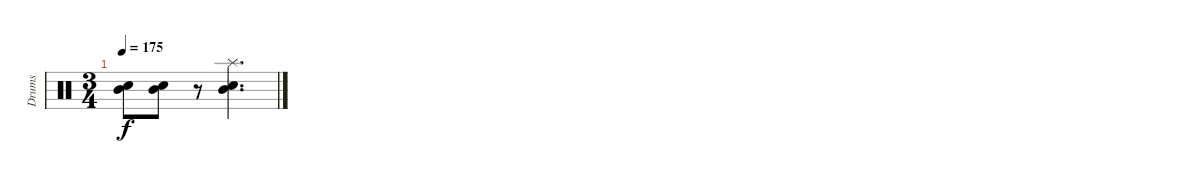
\track ("Drums" "Drums") {instrument percussion}
\staff {score}
\articulation defaults
\ts (3 4)
\tempo 175
\clef neutral
\ks c
("Mid Tom (hit)" "Electric Snare (hit)").8{dy f} ("Mid Tom (hit)" "Electric Snare (hit)").8 r.8 ("Splash (hit)" "Mid Tom (hit)" "Electric Snare (hit)").4{d}
